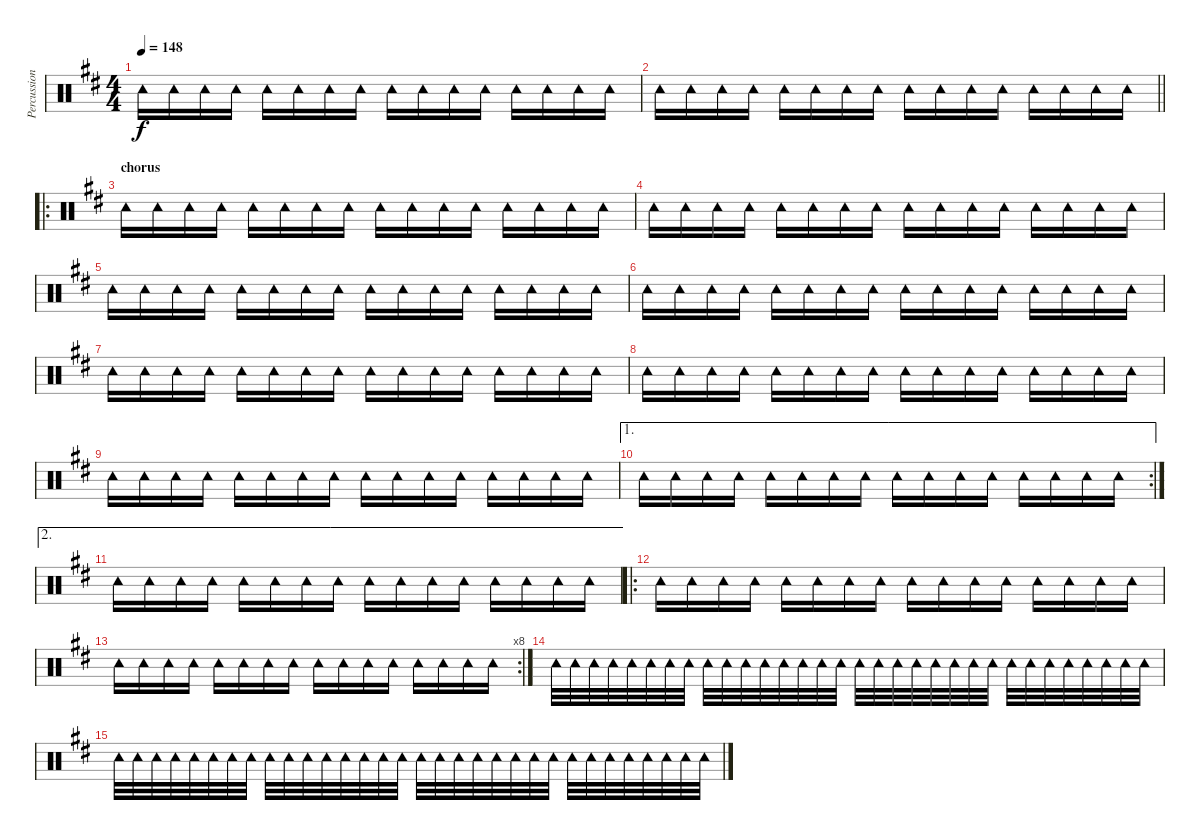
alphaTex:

\track ("Percussioni" "Percussion") {instrument percussion}
\staff {score}
\articulation defaults
\ts (4 4)
\tempo 148
\clef neutral
\ks d "Tambourine (hit)".16{dy f} "Tambourine (hit)".16 "Tambourine (hit)".16 "Tambourine (hit)".16 "Tambourine (hit)".16 "Tambourine (hit)".16 "Tambourine (hit)".16 "Tambourine (hit)".16 "Tambourine (hit)".16 "Tambourine (hit)".16 "Tambourine (hit)".16 "Tambourine (hit)".16 "Tambourine (hit)".16 "Tambourine (hit)".16 "Tambourine (hit)".16 "Tambourine (hit)".16
|
\barLineRight lightlight "Tambourine (hit)".16 "Tambourine (hit)".16 "Tambourine (hit)".16 "Tambourine (hit)".16 "Tambourine (hit)".16 "Tambourine (hit)".16 "Tambourine (hit)".16 "Tambourine (hit)".16 "Tambourine (hit)".16 "Tambourine (hit)".16 "Tambourine (hit)".16 "Tambourine (hit)".16 "Tambourine (hit)".16 "Tambourine (hit)".16 "Tambourine (hit)".16 "Tambourine (hit)".16
|
\ro
\section ("" "chorus")
"Tambourine (hit)".16 "Tambourine (hit)".16 "Tambourine (hit)".16 "Tambourine (hit)".16 "Tambourine (hit)".16 "Tambourine (hit)".16 "Tambourine (hit)".16 "Tambourine (hit)".16 "Tambourine (hit)".16 "Tambourine (hit)".16 "Tambourine (hit)".16 "Tambourine (hit)".16 "Tambourine (hit)".16 "Tambourine (hit)".16 "Tambourine (hit)".16 "Tambourine (hit)".16 |
"Tambourine (hit)".16 "Tambourine (hit)".16 "Tambourine (hit)".16 "Tambourine (hit)".16 "Tambourine (hit)".16 "Tambourine (hit)".16 "Tambourine (hit)".16 "Tambourine (hit)".16 "Tambourine (hit)".16 "Tambourine (hit)".16 "Tambourine (hit)".16 "Tambourine (hit)".16 "Tambourine (hit)".16 "Tambourine (hit)".16 "Tambourine (hit)".16 "Tambourine (hit)".16 |
"Tambourine (hit)".16 "Tambourine (hit)".16 "Tambourine (hit)".16 "Tambourine (hit)".16 "Tambourine (hit)".16 "Tambourine (hit)".16 "Tambourine (hit)".16 "Tambourine (hit)".16 "Tambourine (hit)".16 "Tambourine (hit)".16 "Tambourine (hit)".16 "Tambourine (hit)".16 "Tambourine (hit)".16 "Tambourine (hit)".16 "Tambourine (hit)".16 "Tambourine (hit)".16 |
"Tambourine (hit)".16 "Tambourine (hit)".16 "Tambourine (hit)".16 "Tambourine (hit)".16 "Tambourine (hit)".16 "Tambourine (hit)".16 "Tambourine (hit)".16 "Tambourine (hit)".16 "Tambourine (hit)".16 "Tambourine (hit)".16 "Tambourine (hit)".16 "Tambourine (hit)".16 "Tambourine (hit)".16 "Tambourine (hit)".16 "Tambourine (hit)".16 "Tambourine (hit)".16 |
"Tambourine (hit)".16 "Tambourine (hit)".16 "Tambourine (hit)".16 "Tambourine (hit)".16 "Tambourine (hit)".16 "Tambourine (hit)".16 "Tambourine (hit)".16 "Tambourine (hit)".16 "Tambourine (hit)".16 "Tambourine (hit)".16 "Tambourine (hit)".16 "Tambourine (hit)".16 "Tambourine (hit)".16 "Tambourine (hit)".16 "Tambourine (hit)".16 "Tambourine (hit)".16 |
"Tambourine (hit)".16 "Tambourine (hit)".16 "Tambourine (hit)".16 "Tambourine (hit)".16 "Tambourine (hit)".16 "Tambourine (hit)".16 "Tambourine (hit)".16 "Tambourine (hit)".16 "Tambourine (hit)".16 "Tambourine (hit)".16 "Tambourine (hit)".16 "Tambourine (hit)".16 "Tambourine (hit)".16 "Tambourine (hit)".16 "Tambourine (hit)".16 "Tambourine (hit)".16 |
"Tambourine (hit)".16 "Tambourine (hit)".16 "Tambourine (hit)".16 "Tambourine (hit)".16 "Tambourine (hit)".16 "Tambourine (hit)".16 "Tambourine (hit)".16 "Tambourine (hit)".16 "Tambourine (hit)".16 "Tambourine (hit)".16 "Tambourine (hit)".16 "Tambourine (hit)".16 "Tambourine (hit)".16 "Tambourine (hit)".16 "Tambourine (hit)".16 "Tambourine (hit)".16 |
\ae 1
\rc 2 "Tambourine (hit)".16 "Tambourine (hit)".16 "Tambourine (hit)".16 "Tambourine (hit)".16 "Tambourine (hit)".16 "Tambourine (hit)".16 "Tambourine (hit)".16 "Tambourine (hit)".16 "Tambourine (hit)".16 "Tambourine (hit)".16 "Tambourine (hit)".16 "Tambourine (hit)".16 "Tambourine (hit)".16 "Tambourine (hit)".16 "Tambourine (hit)".16 "Tambourine (hit)".16
|
\ae 2 "Tambourine (hit)".16 "Tambourine (hit)".16 "Tambourine (hit)".16 "Tambourine (hit)".16 "Tambourine (hit)".16 "Tambourine (hit)".16 "Tambourine (hit)".16 "Tambourine (hit)".16 "Tambourine (hit)".16 "Tambourine (hit)".16 "Tambourine (hit)".16 "Tambourine (hit)".16 "Tambourine (hit)".16 "Tambourine (hit)".16 "Tambourine (hit)".16 "Tambourine (hit)".16
|
\ro "Tambourine (hit)".16 "Tambourine (hit)".16 "Tambourine (hit)".16 "Tambourine (hit)".16 "Tambourine (hit)".16 "Tambourine (hit)".16 "Tambourine (hit)".16 "Tambourine (hit)".16 "Tambourine (hit)".16 "Tambourine (hit)".16 "Tambourine (hit)".16 "Tambourine (hit)".16 "Tambourine (hit)".16 "Tambourine (hit)".16 "Tambourine (hit)".16 "Tambourine (hit)".16
|
\rc 8 "Tambourine (hit)".16 "Tambourine (hit)".16 "Tambourine (hit)".16 "Tambourine (hit)".16 "Tambourine (hit)".16 "Tambourine (hit)".16 "Tambourine (hit)".16 "Tambourine (hit)".16 "Tambourine (hit)".16 "Tambourine (hit)".16 "Tambourine (hit)".16 "Tambourine (hit)".16 "Tambourine (hit)".16 "Tambourine (hit)".16 "Tambourine (hit)".16 "Tambourine (hit)".16
|
"Tambourine (hit)".32 "Tambourine (hit)".32 "Tambourine (hit)".32 "Tambourine (hit)".32 "Tambourine (hit)".32 "Tambourine (hit)".32 "Tambourine (hit)".32 "Tambourine (hit)".32 "Tambourine (hit)".32 "Tambourine (hit)".32 "Tambourine (hit)".32 "Tambourine (hit)".32 "Tambourine (hit)".32 "Tambourine (hit)".32 "Tambourine (hit)".32 "Tambourine (hit)".32 "Tambourine (hit)".32 "Tambourine (hit)".32 "Tambourine (hit)".32 "Tambourine (hit)".32 "Tambourine (hit)".32 "Tambourine (hit)".32 "Tambourine (hit)".32 "Tambourine (hit)".32 "Tambourine (hit)".32 "Tambourine (hit)".32 "Tambourine (hit)".32 "Tambourine (hit)".32 "Tambourine (hit)".32 "Tambourine (hit)".32 "Tambourine (hit)".32 "Tambourine (hit)".32 |
"Tambourine (hit)".32 "Tambourine (hit)".32 "Tambourine (hit)".32 "Tambourine (hit)".32 "Tambourine (hit)".32 "Tambourine (hit)".32 "Tambourine (hit)".32 "Tambourine (hit)".32 "Tambourine (hit)".32 "Tambourine (hit)".32 "Tambourine (hit)".32 "Tambourine (hit)".32 "Tambourine (hit)".32 "Tambourine (hit)".32 "Tambourine (hit)".32 "Tambourine (hit)".32 "Tambourine (hit)".32 "Tambourine (hit)".32 "Tambourine (hit)".32 "Tambourine (hit)".32 "Tambourine (hit)".32 "Tambourine (hit)".32 "Tambourine (hit)".32 "Tambourine (hit)".32 "Tambourine (hit)".32 "Tambourine (hit)".32 "Tambourine (hit)".32 "Tambourine (hit)".32 "Tambourine (hit)".32 "Tambourine (hit)".32 "Tambourine (hit)".32 "Tambourine (hit)".32
